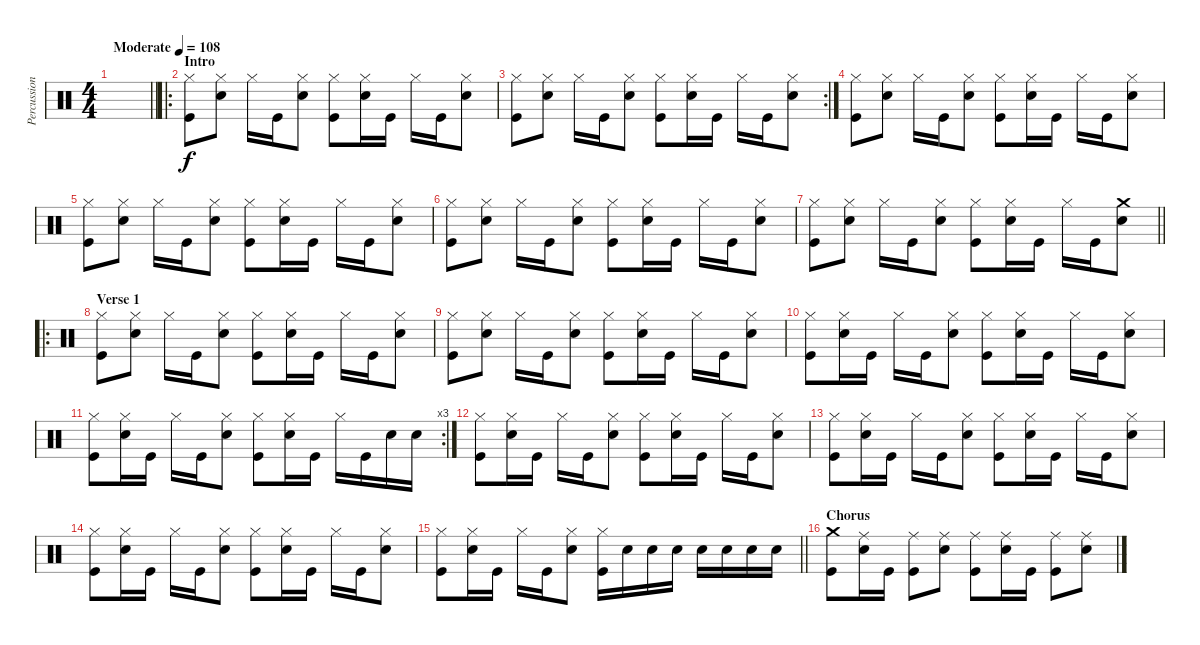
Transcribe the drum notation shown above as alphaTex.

\track ("Percussion" "Percussion") {instrument percussion}
\staff {score}
\articulation defaults
\ts (4 4)
\tempo (108 "Moderate")
\clef neutral
\barLineRight lightlight
\ks c
|
\ro
\section ("" "Intro")
("Kick (hit)" "Hi-Hat (closed)").8 ("Hi-Hat (closed)" "Snare (hit) 2").8 "Hi-Hat (closed)".16 "Kick (hit)".16 ("Hi-Hat (closed)" "Snare (hit) 2").8 ("Kick (hit)" "Hi-Hat (closed)").8 ("Hi-Hat (closed)" "Snare (hit) 2").16 "Kick (hit)".16 "Hi-Hat (closed)".16 "Kick (hit)".16 ("Hi-Hat (closed)" "Snare (hit) 2").8 |
\rc 2
("Kick (hit)" "Hi-Hat (closed)").8 ("Hi-Hat (closed)" "Snare (hit) 2").8 "Hi-Hat (closed)".16 "Kick (hit)".16 ("Hi-Hat (closed)" "Snare (hit) 2").8 ("Kick (hit)" "Hi-Hat (closed)").8 ("Hi-Hat (closed)" "Snare (hit) 2").16 "Kick (hit)".16 "Hi-Hat (closed)".16 "Kick (hit)".16 ("Hi-Hat (closed)" "Snare (hit) 2").8 |
("Kick (hit)" "Hi-Hat (closed)").8 ("Hi-Hat (closed)" "Snare (hit) 2").8 "Hi-Hat (closed)".16 "Kick (hit)".16 ("Hi-Hat (closed)" "Snare (hit) 2").8 ("Kick (hit)" "Hi-Hat (closed)").8 ("Hi-Hat (closed)" "Snare (hit) 2").16 "Kick (hit)".16 "Hi-Hat (closed)".16 "Kick (hit)".16 ("Hi-Hat (closed)" "Snare (hit) 2").8 |
("Kick (hit)" "Hi-Hat (closed)").8 ("Hi-Hat (closed)" "Snare (hit) 2").8 "Hi-Hat (closed)".16 "Kick (hit)".16 ("Hi-Hat (closed)" "Snare (hit) 2").8 ("Kick (hit)" "Hi-Hat (closed)").8 ("Hi-Hat (closed)" "Snare (hit) 2").16 "Kick (hit)".16 "Hi-Hat (closed)".16 "Kick (hit)".16 ("Hi-Hat (closed)" "Snare (hit) 2").8 |
("Kick (hit)" "Hi-Hat (closed)").8 ("Hi-Hat (closed)" "Snare (hit) 2").8 "Hi-Hat (closed)".16 "Kick (hit)".16 ("Hi-Hat (closed)" "Snare (hit) 2").8 ("Kick (hit)" "Hi-Hat (closed)").8 ("Hi-Hat (closed)" "Snare (hit) 2").16 "Kick (hit)".16 "Hi-Hat (closed)".16 "Kick (hit)".16 ("Hi-Hat (closed)" "Snare (hit) 2").8 |
\barLineRight lightlight
("Kick (hit)" "Hi-Hat (closed)").8 ("Hi-Hat (closed)" "Snare (hit) 2").8 "Hi-Hat (closed)".16 "Kick (hit)".16 ("Hi-Hat (closed)" "Snare (hit) 2").8 ("Kick (hit)" "Hi-Hat (closed)").8 ("Hi-Hat (closed)" "Snare (hit) 2").16 "Kick (hit)".16 "Hi-Hat (closed)".16 "Kick (hit)".16 ("Crash medium (hit)" "Snare (hit) 2").8 |
\ro
\section ("" "Verse 1")
("Kick (hit)" "Hi-Hat (closed)").8 ("Hi-Hat (closed)" "Snare (hit) 2").8 "Hi-Hat (closed)".16 "Kick (hit)".16 ("Hi-Hat (closed)" "Snare (hit) 2").8 ("Kick (hit)" "Hi-Hat (closed)").8 ("Hi-Hat (closed)" "Snare (hit) 2").16 "Kick (hit)".16 "Hi-Hat (closed)".16 "Kick (hit)".16 ("Hi-Hat (closed)" "Snare (hit) 2").8 |
("Kick (hit)" "Hi-Hat (closed)").8 ("Hi-Hat (closed)" "Snare (hit) 2").8 "Hi-Hat (closed)".16 "Kick (hit)".16 ("Hi-Hat (closed)" "Snare (hit) 2").8 ("Kick (hit)" "Hi-Hat (closed)").8 ("Hi-Hat (closed)" "Snare (hit) 2").16 "Kick (hit)".16 "Hi-Hat (closed)".16 "Kick (hit)".16 ("Hi-Hat (closed)" "Snare (hit) 2").8 |
("Kick (hit)" "Hi-Hat (closed)").8 ("Hi-Hat (closed)" "Snare (hit) 2").16 "Kick (hit)".16 "Hi-Hat (closed)".16 "Kick (hit)".16 ("Hi-Hat (closed)" "Snare (hit) 2").8 ("Kick (hit)" "Hi-Hat (closed)").8 ("Hi-Hat (closed)" "Snare (hit) 2").16 "Kick (hit)".16 "Hi-Hat (closed)".16 "Kick (hit)".16 ("Hi-Hat (closed)" "Snare (hit) 2").8 |
\rc 3
("Kick (hit)" "Hi-Hat (closed)").8 ("Hi-Hat (closed)" "Snare (hit) 2").16 "Kick (hit)".16 "Hi-Hat (closed)".16 "Kick (hit)".16 ("Hi-Hat (closed)" "Snare (hit) 2").8 ("Kick (hit)" "Hi-Hat (closed)").8 ("Hi-Hat (closed)" "Snare (hit) 2").16 "Kick (hit)".16 "Hi-Hat (closed)".16 "Kick (hit)".16 "Snare (hit) 2".16 "Snare (hit) 2".16 |
("Kick (hit)" "Hi-Hat (closed)").8 ("Hi-Hat (closed)" "Snare (hit) 2").16 "Kick (hit)".16 "Hi-Hat (closed)".16 "Kick (hit)".16 ("Hi-Hat (closed)" "Snare (hit) 2").8 ("Kick (hit)" "Hi-Hat (closed)").8 ("Hi-Hat (closed)" "Snare (hit) 2").16 "Kick (hit)".16 "Hi-Hat (closed)".16 "Kick (hit)".16 ("Hi-Hat (closed)" "Snare (hit) 2").8 |
("Kick (hit)" "Hi-Hat (closed)").8 ("Hi-Hat (closed)" "Snare (hit) 2").16 "Kick (hit)".16 "Hi-Hat (closed)".16 "Kick (hit)".16 ("Hi-Hat (closed)" "Snare (hit) 2").8 ("Kick (hit)" "Hi-Hat (closed)").8 ("Hi-Hat (closed)" "Snare (hit) 2").16 "Kick (hit)".16 "Hi-Hat (closed)".16 "Kick (hit)".16 ("Hi-Hat (closed)" "Snare (hit) 2").8 |
("Kick (hit)" "Hi-Hat (closed)").8 ("Hi-Hat (closed)" "Snare (hit) 2").16 "Kick (hit)".16 "Hi-Hat (closed)".16 "Kick (hit)".16 ("Hi-Hat (closed)" "Snare (hit) 2").8 ("Kick (hit)" "Hi-Hat (closed)").8 ("Hi-Hat (closed)" "Snare (hit) 2").16 "Kick (hit)".16 "Hi-Hat (closed)".16 "Kick (hit)".16 ("Hi-Hat (closed)" "Snare (hit) 2").8 |
\barLineRight lightlight
("Kick (hit)" "Hi-Hat (closed)").8 ("Hi-Hat (closed)" "Snare (hit) 2").16 "Kick (hit)".16 "Hi-Hat (closed)".16 "Kick (hit)".16 ("Hi-Hat (closed)" "Snare (hit) 2").8 ("Kick (hit)" "Hi-Hat (closed)").16 "Snare (hit) 2".16 "Snare (hit) 2".16 "Snare (hit) 2".16 "Snare (hit) 2".16 "Snare (hit) 2".16 "Snare (hit) 2".16 "Snare (hit) 2".16 |
\section ("" "Chorus")
("Kick (hit)" "Crash medium (hit)").8 ("Ride (middle)" "Snare (hit) 2").16 "Kick (hit)".16 ("Kick (hit)" "Ride (middle)").8 ("Ride (middle)" "Snare (hit) 2").8 ("Kick (hit)" "Ride (middle)").8 ("Ride (middle)" "Snare (hit) 2").16 "Kick (hit)".16 ("Kick (hit)" "Ride (middle)").8 ("Ride (middle)" "Snare (hit) 2").8
